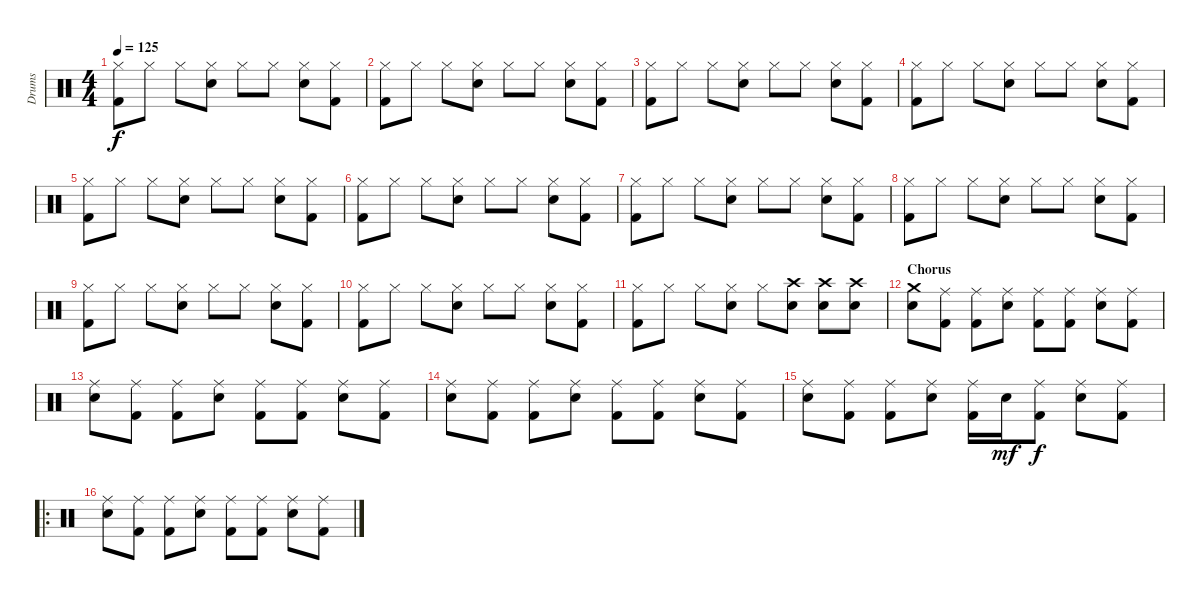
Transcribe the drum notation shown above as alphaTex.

\track ("Drums" "Drums") {instrument percussion}
\staff {score}
\articulation defaults
\ts (4 4)
\tempo 125
\clef neutral
\ks c
("Hi-Hat (closed)" "Kick (hit) 2").8{dy f} "Hi-Hat (closed)".8 "Hi-Hat (closed)".8 ("Hi-Hat (closed)" "Snare (hit) 2").8 "Hi-Hat (closed)".8 "Hi-Hat (closed)".8 ("Hi-Hat (closed)" "Snare (hit) 2").8 ("Hi-Hat (closed)" "Kick (hit) 2").8 |
("Hi-Hat (closed)" "Kick (hit) 2").8 "Hi-Hat (closed)".8 "Hi-Hat (closed)".8 ("Hi-Hat (closed)" "Snare (hit) 2").8 "Hi-Hat (closed)".8 "Hi-Hat (closed)".8 ("Hi-Hat (closed)" "Snare (hit) 2").8 ("Hi-Hat (closed)" "Kick (hit) 2").8 |
("Hi-Hat (closed)" "Kick (hit) 2").8 "Hi-Hat (closed)".8 "Hi-Hat (closed)".8 ("Hi-Hat (closed)" "Snare (hit) 2").8 "Hi-Hat (closed)".8 "Hi-Hat (closed)".8 ("Hi-Hat (closed)" "Snare (hit) 2").8 ("Hi-Hat (closed)" "Kick (hit) 2").8 |
("Hi-Hat (closed)" "Kick (hit) 2").8 "Hi-Hat (closed)".8 "Hi-Hat (closed)".8 ("Hi-Hat (closed)" "Snare (hit) 2").8 "Hi-Hat (closed)".8 "Hi-Hat (closed)".8 ("Hi-Hat (closed)" "Snare (hit) 2").8 ("Hi-Hat (closed)" "Kick (hit) 2").8 |
("Hi-Hat (closed)" "Kick (hit) 2").8 "Hi-Hat (closed)".8 "Hi-Hat (closed)".8 ("Hi-Hat (closed)" "Snare (hit) 2").8 "Hi-Hat (closed)".8 "Hi-Hat (closed)".8 ("Hi-Hat (closed)" "Snare (hit) 2").8 ("Hi-Hat (closed)" "Kick (hit) 2").8 |
("Hi-Hat (closed)" "Kick (hit) 2").8 "Hi-Hat (closed)".8 "Hi-Hat (closed)".8 ("Hi-Hat (closed)" "Snare (hit) 2").8 "Hi-Hat (closed)".8 "Hi-Hat (closed)".8 ("Hi-Hat (closed)" "Snare (hit) 2").8 ("Hi-Hat (closed)" "Kick (hit) 2").8 |
("Hi-Hat (closed)" "Kick (hit) 2").8 "Hi-Hat (closed)".8 "Hi-Hat (closed)".8 ("Hi-Hat (closed)" "Snare (hit) 2").8 "Hi-Hat (closed)".8 "Hi-Hat (closed)".8 ("Hi-Hat (closed)" "Snare (hit) 2").8 ("Hi-Hat (closed)" "Kick (hit) 2").8 |
("Hi-Hat (closed)" "Kick (hit) 2").8 "Hi-Hat (closed)".8 "Hi-Hat (closed)".8 ("Hi-Hat (closed)" "Snare (hit) 2").8 "Hi-Hat (closed)".8 "Hi-Hat (closed)".8 ("Hi-Hat (closed)" "Snare (hit) 2").8 ("Hi-Hat (closed)" "Kick (hit) 2").8 |
("Hi-Hat (closed)" "Kick (hit) 2").8 "Hi-Hat (closed)".8 "Hi-Hat (closed)".8 ("Hi-Hat (closed)" "Snare (hit) 2").8 "Hi-Hat (closed)".8 "Hi-Hat (closed)".8 ("Hi-Hat (closed)" "Snare (hit) 2").8 ("Hi-Hat (closed)" "Kick (hit) 2").8 |
("Hi-Hat (closed)" "Kick (hit) 2").8 "Hi-Hat (closed)".8 "Hi-Hat (closed)".8 ("Hi-Hat (closed)" "Snare (hit) 2").8 "Hi-Hat (closed)".8 "Hi-Hat (closed)".8 ("Hi-Hat (closed)" "Snare (hit) 2").8 ("Hi-Hat (closed)" "Kick (hit) 2").8 |
("Hi-Hat (closed)" "Kick (hit) 2").8 "Hi-Hat (closed)".8 "Hi-Hat (closed)".8 ("Hi-Hat (closed)" "Snare (hit) 2").8 "Hi-Hat (closed)".8 ("Crash high (hit)" "Snare (hit) 2").8 ("Crash high (hit)" "Snare (hit) 2").8 ("Crash high (hit)" "Snare (hit) 2").8 |
\section ("" "Chorus")
("Crash medium (hit)" "Snare (hit) 2").8 ("Ride (middle)" "Kick (hit) 2").8 ("Ride (middle)" "Kick (hit) 2").8 ("Ride (middle)" "Snare (hit) 2").8 ("Ride (middle)" "Kick (hit) 2").8 ("Ride (middle)" "Kick (hit) 2").8 ("Ride (middle)" "Snare (hit) 2").8 ("Ride (middle)" "Kick (hit) 2").8 |
("Ride (middle)" "Snare (hit) 2").8 ("Ride (middle)" "Kick (hit) 2").8 ("Ride (middle)" "Kick (hit) 2").8 ("Ride (middle)" "Snare (hit) 2").8 ("Ride (middle)" "Kick (hit) 2").8 ("Ride (middle)" "Kick (hit) 2").8 ("Ride (middle)" "Snare (hit) 2").8 ("Ride (middle)" "Kick (hit) 2").8 |
("Ride (middle)" "Snare (hit) 2").8 ("Ride (middle)" "Kick (hit) 2").8 ("Ride (middle)" "Kick (hit) 2").8 ("Ride (middle)" "Snare (hit) 2").8 ("Ride (middle)" "Kick (hit) 2").8 ("Ride (middle)" "Kick (hit) 2").8 ("Ride (middle)" "Snare (hit) 2").8 ("Ride (middle)" "Kick (hit) 2").8 |
("Ride (middle)" "Snare (hit) 2").8 ("Ride (middle)" "Kick (hit) 2").8 ("Ride (middle)" "Kick (hit) 2").8 ("Ride (middle)" "Snare (hit) 2").8 ("Ride (middle)" "Kick (hit) 2").16 "Snare (hit) 2".16{dy mf} ("Ride (middle)" "Kick (hit) 2").8{dy f} ("Ride (middle)" "Snare (hit) 2").8 ("Ride (middle)" "Kick (hit) 2").8 |
\ro
("Ride (middle)" "Snare (hit) 2").8 ("Ride (middle)" "Kick (hit) 2").8 ("Ride (middle)" "Kick (hit) 2").8 ("Ride (middle)" "Snare (hit) 2").8 ("Ride (middle)" "Kick (hit) 2").8 ("Ride (middle)" "Kick (hit) 2").8 ("Ride (middle)" "Snare (hit) 2").8 ("Ride (middle)" "Kick (hit) 2").8
